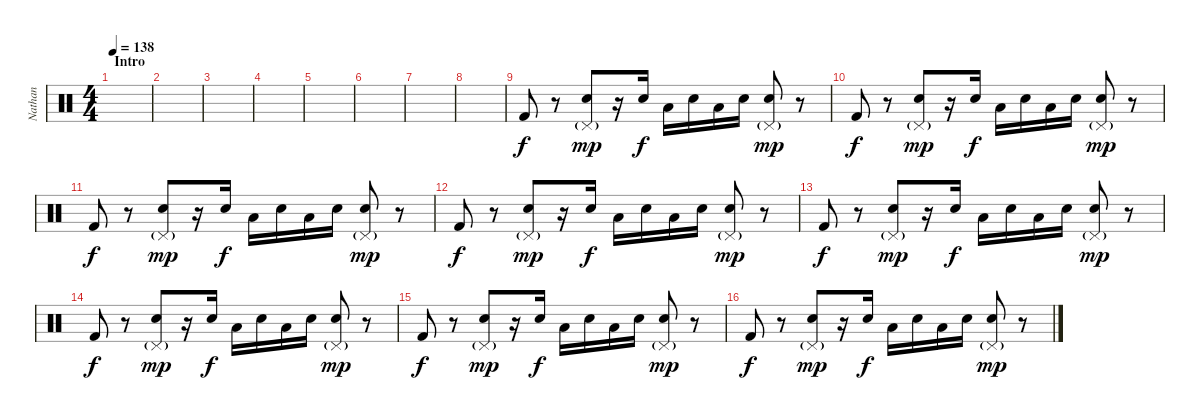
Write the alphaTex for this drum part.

\track ("Nathan" "Nathan") {instrument percussion}
\staff {score}
\articulation defaults
\ts (4 4)
\section ("" "Intro ")
\tempo 138
\clef neutral
\ks c
|
|
|
|
|
|
|
|
"Kick (hit) 2".8 r.8 ("Pedal Hi-Hat (hit)"{g} "Electric Snare (hit)").8{dy mp} r.16 "Electric Snare (hit)".16{dy f} "Low Tom (hit)".16 "Electric Snare (hit)".16 "Low Tom (hit)".16 "Electric Snare (hit)".16 ("Pedal Hi-Hat (hit)"{g} "Electric Snare (hit)").8{dy mp} r.8 |
"Kick (hit) 2".8{dy f} r.8 ("Pedal Hi-Hat (hit)"{g} "Electric Snare (hit)").8{dy mp} r.16 "Electric Snare (hit)".16{dy f} "Low Tom (hit)".16 "Electric Snare (hit)".16 "Low Tom (hit)".16 "Electric Snare (hit)".16 ("Pedal Hi-Hat (hit)"{g} "Electric Snare (hit)").8{dy mp} r.8 |
"Kick (hit) 2".8{dy f} r.8 ("Pedal Hi-Hat (hit)"{g} "Electric Snare (hit)").8{dy mp} r.16 "Electric Snare (hit)".16{dy f} "Low Tom (hit)".16 "Electric Snare (hit)".16 "Low Tom (hit)".16 "Electric Snare (hit)".16 ("Pedal Hi-Hat (hit)"{g} "Electric Snare (hit)").8{dy mp} r.8 |
"Kick (hit) 2".8{dy f} r.8 ("Pedal Hi-Hat (hit)"{g} "Electric Snare (hit)").8{dy mp} r.16 "Electric Snare (hit)".16{dy f} "Low Tom (hit)".16 "Electric Snare (hit)".16 "Low Tom (hit)".16 "Electric Snare (hit)".16 ("Pedal Hi-Hat (hit)"{g} "Electric Snare (hit)").8{dy mp} r.8 |
"Kick (hit) 2".8{dy f} r.8 ("Pedal Hi-Hat (hit)"{g} "Electric Snare (hit)").8{dy mp} r.16 "Electric Snare (hit)".16{dy f} "Low Tom (hit)".16 "Electric Snare (hit)".16 "Low Tom (hit)".16 "Electric Snare (hit)".16 ("Pedal Hi-Hat (hit)"{g} "Electric Snare (hit)").8{dy mp} r.8 |
"Kick (hit) 2".8{dy f} r.8 ("Pedal Hi-Hat (hit)"{g} "Electric Snare (hit)").8{dy mp} r.16 "Electric Snare (hit)".16{dy f} "Low Tom (hit)".16 "Electric Snare (hit)".16 "Low Tom (hit)".16 "Electric Snare (hit)".16 ("Pedal Hi-Hat (hit)"{g} "Electric Snare (hit)").8{dy mp} r.8 |
"Kick (hit) 2".8{dy f} r.8 ("Pedal Hi-Hat (hit)"{g} "Electric Snare (hit)").8{dy mp} r.16 "Electric Snare (hit)".16{dy f} "Low Tom (hit)".16 "Electric Snare (hit)".16 "Low Tom (hit)".16 "Electric Snare (hit)".16 ("Pedal Hi-Hat (hit)"{g} "Electric Snare (hit)").8{dy mp} r.8 |
"Kick (hit) 2".8{dy f} r.8 ("Pedal Hi-Hat (hit)"{g} "Electric Snare (hit)").8{dy mp} r.16 "Electric Snare (hit)".16{dy f} "Low Tom (hit)".16 "Electric Snare (hit)".16 "Low Tom (hit)".16 "Electric Snare (hit)".16 ("Pedal Hi-Hat (hit)"{g} "Electric Snare (hit)").8{dy mp} r.8
